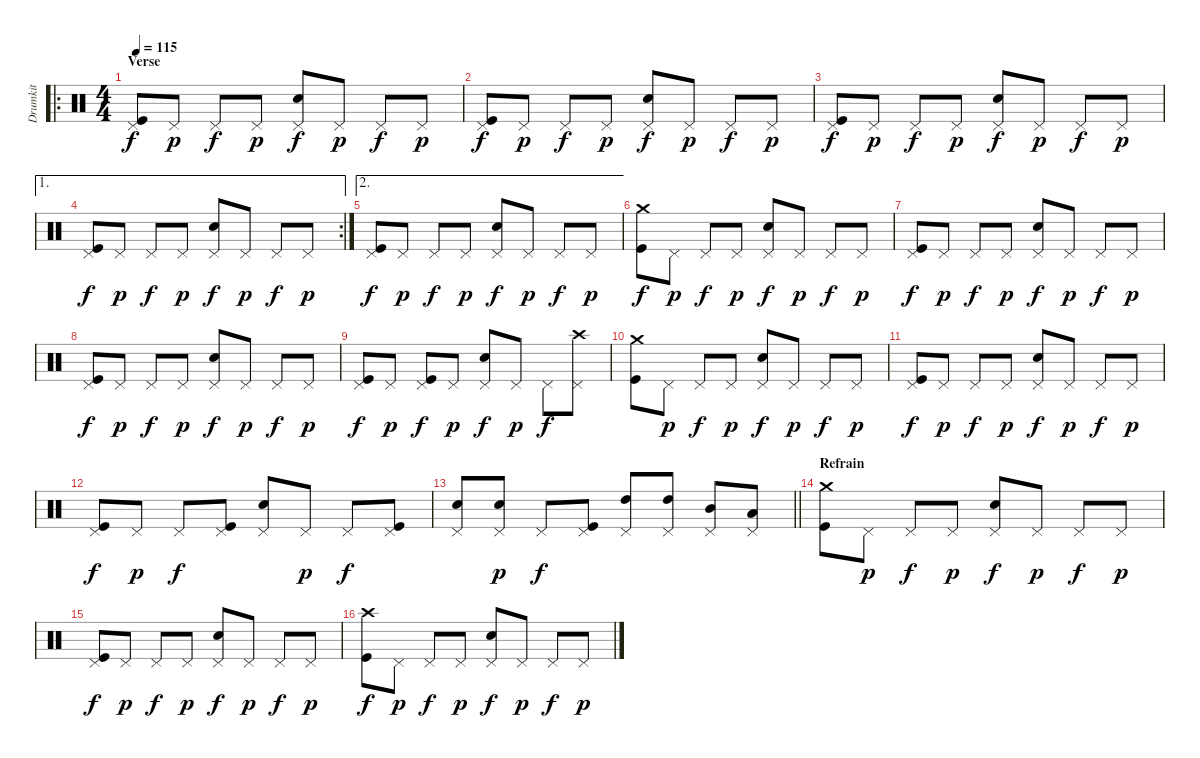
\track ("Drumkit" "Drumkit") {instrument percussion}
\staff {score}
\articulation defaults
\ro
\ts (4 4)
\section ("" "Verse")
\tempo 115
\clef neutral
\ks c
("Kick (hit)" "Pedal Hi-Hat (hit)").8{dy f} "Pedal Hi-Hat (hit)".8{dy p} "Pedal Hi-Hat (hit)".8{dy f} "Pedal Hi-Hat (hit)".8{dy p} ("Pedal Hi-Hat (hit)" "Snare (hit) 2").8{dy f} "Pedal Hi-Hat (hit)".8{dy p} "Pedal Hi-Hat (hit)".8{dy f} "Pedal Hi-Hat (hit)".8{dy p} |
("Kick (hit)" "Pedal Hi-Hat (hit)").8{dy f} "Pedal Hi-Hat (hit)".8{dy p} "Pedal Hi-Hat (hit)".8{dy f} "Pedal Hi-Hat (hit)".8{dy p} ("Pedal Hi-Hat (hit)" "Snare (hit) 2").8{dy f} "Pedal Hi-Hat (hit)".8{dy p} "Pedal Hi-Hat (hit)".8{dy f} "Pedal Hi-Hat (hit)".8{dy p} |
("Kick (hit)" "Pedal Hi-Hat (hit)").8{dy f} "Pedal Hi-Hat (hit)".8{dy p} "Pedal Hi-Hat (hit)".8{dy f} "Pedal Hi-Hat (hit)".8{dy p} ("Pedal Hi-Hat (hit)" "Snare (hit) 2").8{dy f} "Pedal Hi-Hat (hit)".8{dy p} "Pedal Hi-Hat (hit)".8{dy f} "Pedal Hi-Hat (hit)".8{dy p} |
\ae 1
\rc 2
("Kick (hit)" "Pedal Hi-Hat (hit)").8{dy f} "Pedal Hi-Hat (hit)".8{dy p} "Pedal Hi-Hat (hit)".8{dy f} "Pedal Hi-Hat (hit)".8{dy p} ("Pedal Hi-Hat (hit)" "Snare (hit) 2").8{dy f} "Pedal Hi-Hat (hit)".8{dy p} "Pedal Hi-Hat (hit)".8{dy f} "Pedal Hi-Hat (hit)".8{dy p} |
\ae 2
("Kick (hit)" "Pedal Hi-Hat (hit)").8{dy f} "Pedal Hi-Hat (hit)".8{dy p} "Pedal Hi-Hat (hit)".8{dy f} "Pedal Hi-Hat (hit)".8{dy p} ("Pedal Hi-Hat (hit)" "Snare (hit) 2").8{dy f} "Pedal Hi-Hat (hit)".8{dy p} "Pedal Hi-Hat (hit)".8{dy f} "Pedal Hi-Hat (hit)".8{dy p} |
("Kick (hit)" "Crash medium (hit)").8{dy f} "Pedal Hi-Hat (hit)".8{dy p} "Pedal Hi-Hat (hit)".8{dy f} "Pedal Hi-Hat (hit)".8{dy p} ("Pedal Hi-Hat (hit)" "Snare (hit) 2").8{dy f} "Pedal Hi-Hat (hit)".8{dy p} "Pedal Hi-Hat (hit)".8{dy f} "Pedal Hi-Hat (hit)".8{dy p} |
("Kick (hit)" "Pedal Hi-Hat (hit)").8{dy f} "Pedal Hi-Hat (hit)".8{dy p} "Pedal Hi-Hat (hit)".8{dy f} "Pedal Hi-Hat (hit)".8{dy p} ("Pedal Hi-Hat (hit)" "Snare (hit) 2").8{dy f} "Pedal Hi-Hat (hit)".8{dy p} "Pedal Hi-Hat (hit)".8{dy f} "Pedal Hi-Hat (hit)".8{dy p} |
("Kick (hit)" "Pedal Hi-Hat (hit)").8{dy f} "Pedal Hi-Hat (hit)".8{dy p} "Pedal Hi-Hat (hit)".8{dy f} "Pedal Hi-Hat (hit)".8{dy p} ("Pedal Hi-Hat (hit)" "Snare (hit) 2").8{dy f} "Pedal Hi-Hat (hit)".8{dy p} "Pedal Hi-Hat (hit)".8{dy f} "Pedal Hi-Hat (hit)".8{dy p} |
("Kick (hit)" "Pedal Hi-Hat (hit)").8{dy f} "Pedal Hi-Hat (hit)".8{dy p} ("Kick (hit)" "Pedal Hi-Hat (hit)").8{dy f} "Pedal Hi-Hat (hit)".8{dy p} ("Pedal Hi-Hat (hit)" "Snare (hit) 2").8{dy f} "Pedal Hi-Hat (hit)".8{dy p} "Pedal Hi-Hat (hit)".8{dy f} ("Crash high (hit)" "Pedal Hi-Hat (hit)").8 |
("Kick (hit)" "Crash medium (hit)").8 "Pedal Hi-Hat (hit)".8{dy p} "Pedal Hi-Hat (hit)".8{dy f} "Pedal Hi-Hat (hit)".8{dy p} ("Pedal Hi-Hat (hit)" "Snare (hit) 2").8{dy f} "Pedal Hi-Hat (hit)".8{dy p} "Pedal Hi-Hat (hit)".8{dy f} "Pedal Hi-Hat (hit)".8{dy p} |
("Kick (hit)" "Pedal Hi-Hat (hit)").8{dy f} "Pedal Hi-Hat (hit)".8{dy p} "Pedal Hi-Hat (hit)".8{dy f} "Pedal Hi-Hat (hit)".8{dy p} ("Pedal Hi-Hat (hit)" "Snare (hit) 2").8{dy f} "Pedal Hi-Hat (hit)".8{dy p} "Pedal Hi-Hat (hit)".8{dy f} "Pedal Hi-Hat (hit)".8{dy p} |
("Kick (hit)" "Pedal Hi-Hat (hit)").8{dy f} "Pedal Hi-Hat (hit)".8{dy p} "Pedal Hi-Hat (hit)".8{dy f} ("Kick (hit)" "Pedal Hi-Hat (hit)").8 ("Pedal Hi-Hat (hit)" "Snare (hit) 2").8 "Pedal Hi-Hat (hit)".8{dy p} "Pedal Hi-Hat (hit)".8{dy f} ("Kick (hit)" "Pedal Hi-Hat (hit)").8 |
\barLineRight lightlight
("Pedal Hi-Hat (hit)" "Snare (hit) 2").8 ("Pedal Hi-Hat (hit)" "Snare (hit) 2").8{dy p} "Pedal Hi-Hat (hit)".8{dy f} ("Kick (hit)" "Pedal Hi-Hat (hit)").8 ("High Tom (hit)" "Pedal Hi-Hat (hit)").8 ("High Tom (hit)" "Pedal Hi-Hat (hit)").8 ("Mid Tom (hit)" "Pedal Hi-Hat (hit)").8 ("Low Tom (hit)" "Pedal Hi-Hat (hit)").8 |
\section ("" "Refrain")
("Kick (hit)" "Crash medium (hit)").8 "Pedal Hi-Hat (hit)".8{dy p} "Pedal Hi-Hat (hit)".8{dy f} "Pedal Hi-Hat (hit)".8{dy p} ("Pedal Hi-Hat (hit)" "Snare (hit) 2").8{dy f} "Pedal Hi-Hat (hit)".8{dy p} "Pedal Hi-Hat (hit)".8{dy f} "Pedal Hi-Hat (hit)".8{dy p} |
("Kick (hit)" "Pedal Hi-Hat (hit)").8{dy f} "Pedal Hi-Hat (hit)".8{dy p} "Pedal Hi-Hat (hit)".8{dy f} "Pedal Hi-Hat (hit)".8{dy p} ("Pedal Hi-Hat (hit)" "Snare (hit) 2").8{dy f} "Pedal Hi-Hat (hit)".8{dy p} "Pedal Hi-Hat (hit)".8{dy f} "Pedal Hi-Hat (hit)".8{dy p} |
("Kick (hit)" "Crash high (hit)").8{dy f} "Pedal Hi-Hat (hit)".8{dy p} "Pedal Hi-Hat (hit)".8{dy f} "Pedal Hi-Hat (hit)".8{dy p} ("Pedal Hi-Hat (hit)" "Snare (hit) 2").8{dy f} "Pedal Hi-Hat (hit)".8{dy p} "Pedal Hi-Hat (hit)".8{dy f} "Pedal Hi-Hat (hit)".8{dy p}
